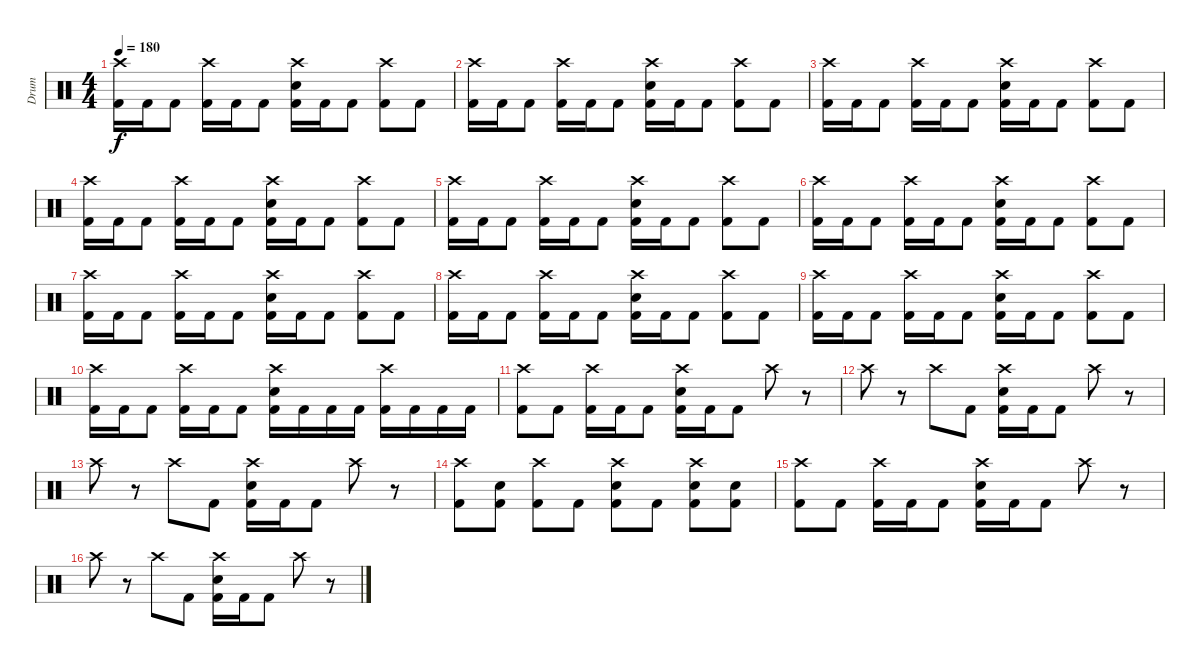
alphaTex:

\track ("Drum" "Drum") {instrument percussion}
\staff {score}
\articulation defaults
\ts (4 4)
\tempo 180
\clef neutral
\ks c
("Crash high (hit)" "Kick (hit) 2").16{dy f} "Kick (hit) 2".16 "Kick (hit) 2".8 ("Crash high (hit)" "Kick (hit) 2").16 "Kick (hit) 2".16 "Kick (hit) 2".8 ("Crash high (hit)" "Snare (hit) 2" "Kick (hit) 2").16 "Kick (hit) 2".16 "Kick (hit) 2".8 ("Crash high (hit)" "Kick (hit) 2").8 "Kick (hit) 2".8 |
("Crash high (hit)" "Kick (hit) 2").16 "Kick (hit) 2".16 "Kick (hit) 2".8 ("Crash high (hit)" "Kick (hit) 2").16 "Kick (hit) 2".16 "Kick (hit) 2".8 ("Crash high (hit)" "Snare (hit) 2" "Kick (hit) 2").16 "Kick (hit) 2".16 "Kick (hit) 2".8 ("Crash high (hit)" "Kick (hit) 2").8 "Kick (hit) 2".8 |
("Crash high (hit)" "Kick (hit) 2").16 "Kick (hit) 2".16 "Kick (hit) 2".8 ("Crash high (hit)" "Kick (hit) 2").16 "Kick (hit) 2".16 "Kick (hit) 2".8 ("Crash high (hit)" "Snare (hit) 2" "Kick (hit) 2").16 "Kick (hit) 2".16 "Kick (hit) 2".8 ("Crash high (hit)" "Kick (hit) 2").8 "Kick (hit) 2".8 |
("Crash high (hit)" "Kick (hit) 2").16 "Kick (hit) 2".16 "Kick (hit) 2".8 ("Crash high (hit)" "Kick (hit) 2").16 "Kick (hit) 2".16 "Kick (hit) 2".8 ("Crash high (hit)" "Snare (hit) 2" "Kick (hit) 2").16 "Kick (hit) 2".16 "Kick (hit) 2".8 ("Crash high (hit)" "Kick (hit) 2").8 "Kick (hit) 2".8 |
("Crash high (hit)" "Kick (hit) 2").16 "Kick (hit) 2".16 "Kick (hit) 2".8 ("Crash high (hit)" "Kick (hit) 2").16 "Kick (hit) 2".16 "Kick (hit) 2".8 ("Crash high (hit)" "Snare (hit) 2" "Kick (hit) 2").16 "Kick (hit) 2".16 "Kick (hit) 2".8 ("Crash high (hit)" "Kick (hit) 2").8 "Kick (hit) 2".8 |
("Crash high (hit)" "Kick (hit) 2").16 "Kick (hit) 2".16 "Kick (hit) 2".8 ("Crash high (hit)" "Kick (hit) 2").16 "Kick (hit) 2".16 "Kick (hit) 2".8 ("Crash high (hit)" "Snare (hit) 2" "Kick (hit) 2").16 "Kick (hit) 2".16 "Kick (hit) 2".8 ("Crash high (hit)" "Kick (hit) 2").8 "Kick (hit) 2".8 |
("Crash high (hit)" "Kick (hit) 2").16 "Kick (hit) 2".16 "Kick (hit) 2".8 ("Crash high (hit)" "Kick (hit) 2").16 "Kick (hit) 2".16 "Kick (hit) 2".8 ("Crash high (hit)" "Snare (hit) 2" "Kick (hit) 2").16 "Kick (hit) 2".16 "Kick (hit) 2".8 ("Crash high (hit)" "Kick (hit) 2").8 "Kick (hit) 2".8 |
("Crash high (hit)" "Kick (hit) 2").16 "Kick (hit) 2".16 "Kick (hit) 2".8 ("Crash high (hit)" "Kick (hit) 2").16 "Kick (hit) 2".16 "Kick (hit) 2".8 ("Crash high (hit)" "Snare (hit) 2" "Kick (hit) 2").16 "Kick (hit) 2".16 "Kick (hit) 2".8 ("Crash high (hit)" "Kick (hit) 2").8 "Kick (hit) 2".8 |
("Crash high (hit)" "Kick (hit) 2").16 "Kick (hit) 2".16 "Kick (hit) 2".8 ("Crash high (hit)" "Kick (hit) 2").16 "Kick (hit) 2".16 "Kick (hit) 2".8 ("Crash high (hit)" "Snare (hit) 2" "Kick (hit) 2").16 "Kick (hit) 2".16 "Kick (hit) 2".8 ("Crash high (hit)" "Kick (hit) 2").8 "Kick (hit) 2".8 |
("Crash high (hit)" "Kick (hit) 2").16 "Kick (hit) 2".16 "Kick (hit) 2".8 ("Crash high (hit)" "Kick (hit) 2").16 "Kick (hit) 2".16 "Kick (hit) 2".8 ("Crash high (hit)" "Snare (hit) 2" "Kick (hit) 2").16 "Kick (hit) 2".16 "Kick (hit) 2".16 "Kick (hit) 2".16 ("Crash high (hit)" "Kick (hit) 2").16 "Kick (hit) 2".16 "Kick (hit) 2".16 "Kick (hit) 2".16 |
("Crash high (hit)" "Kick (hit) 2").8 "Kick (hit) 2".8 ("Crash high (hit)" "Kick (hit) 2").16 "Kick (hit) 2".16 "Kick (hit) 2".8 ("Crash high (hit)" "Snare (hit) 2" "Kick (hit) 2").16 "Kick (hit) 2".16 "Kick (hit) 2".8 "Crash high (hit)".8 r.8 |
"Crash high (hit)".8 r.8 "Crash high (hit)".8 "Kick (hit) 2".8 ("Crash high (hit)" "Snare (hit) 2" "Kick (hit) 2").16 "Kick (hit) 2".16 "Kick (hit) 2".8 "Crash high (hit)".8 r.8 |
"Crash high (hit)".8 r.8 "Crash high (hit)".8 "Kick (hit) 2".8 ("Crash high (hit)" "Snare (hit) 2" "Kick (hit) 2").16 "Kick (hit) 2".16 "Kick (hit) 2".8 "Crash high (hit)".8 r.8 |
("Crash high (hit)" "Kick (hit) 2").8 ("Snare (hit) 2" "Kick (hit) 2").8 ("Crash high (hit)" "Kick (hit) 2").8 "Kick (hit) 2".8 ("Crash high (hit)" "Snare (hit) 2" "Kick (hit) 2").8 "Kick (hit) 2".8 ("Crash high (hit)" "Snare (hit) 2" "Kick (hit) 2").8 ("Snare (hit) 2" "Kick (hit) 2").8 |
("Crash high (hit)" "Kick (hit) 2").8 "Kick (hit) 2".8 ("Crash high (hit)" "Kick (hit) 2").16 "Kick (hit) 2".16 "Kick (hit) 2".8 ("Crash high (hit)" "Snare (hit) 2" "Kick (hit) 2").16 "Kick (hit) 2".16 "Kick (hit) 2".8 "Crash high (hit)".8 r.8 |
"Crash high (hit)".8 r.8 "Crash high (hit)".8 "Kick (hit) 2".8 ("Crash high (hit)" "Snare (hit) 2" "Kick (hit) 2").16 "Kick (hit) 2".16 "Kick (hit) 2".8 "Crash high (hit)".8 r.8
